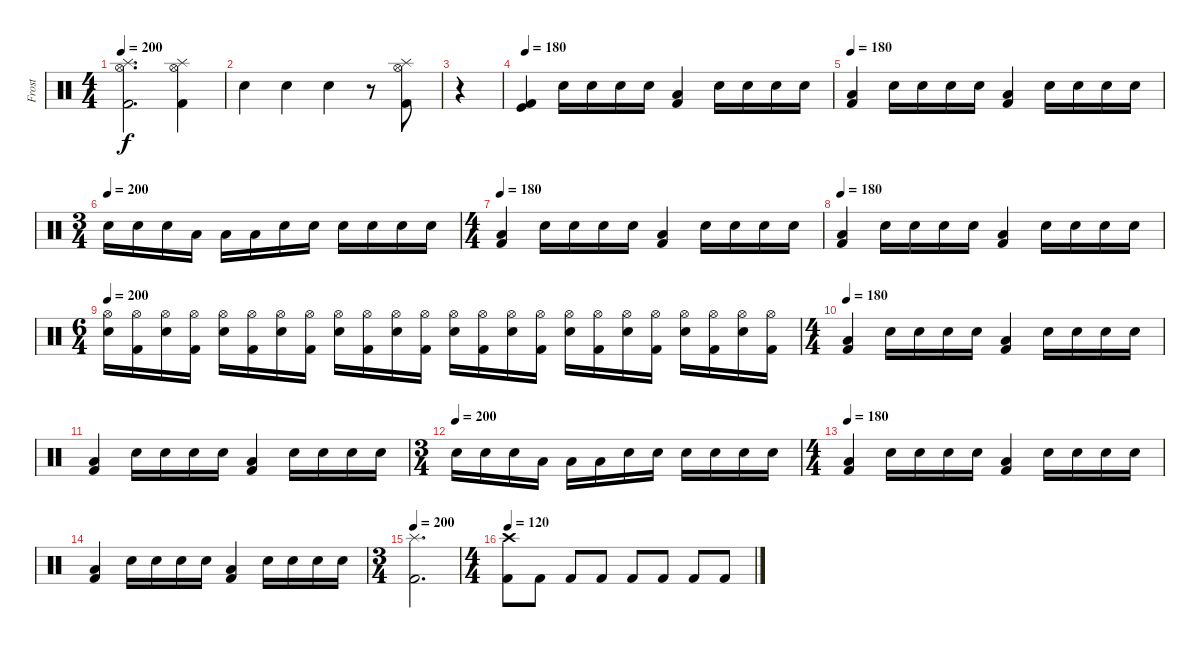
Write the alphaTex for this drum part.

\track ("Frost" "Frost") {instrument percussion}
\staff {score}
\articulation defaults
\ts (4 4)
\tempo 200
\clef neutral
\ks c
("Splash (hit)" "Hi-Hat (open)" "Kick (hit) 2").2{d dy f} ("Splash (hit)" "Hi-Hat (open)" "Kick (hit) 2").4 |
"Snare (hit)".4 "Snare (hit)".4 "Snare (hit)".4 r.8 ("Splash (hit)" "Hi-Hat (open)" "Kick (hit) 2").8 |
r.4 |
\tempo 180
("Kick (hit)" "Kick (hit) 2").4 "Snare (hit) 2".16 "Snare (hit) 2".16 "Snare (hit) 2".16 "Snare (hit) 2".16 ("Low Tom (hit)" "Kick (hit) 2").4 "Snare (hit) 2".16 "Snare (hit) 2".16 "Snare (hit) 2".16 "Snare (hit) 2".16 |
\tempo 180
("Low Tom (hit)" "Kick (hit) 2").4 "Snare (hit) 2".16 "Snare (hit) 2".16 "Snare (hit) 2".16 "Snare (hit) 2".16 ("Low Tom (hit)" "Kick (hit) 2").4 "Snare (hit) 2".16 "Snare (hit) 2".16 "Snare (hit) 2".16 "Snare (hit) 2".16 |
\ts (3 4)
\tempo (200)
"Snare (hit) 2".16 "Snare (hit) 2".16 "Snare (hit) 2".16 "Low Tom (hit)".16 "Low Tom (hit)".16 "Low Tom (hit)".16 "Snare (hit) 2".16 "Snare (hit) 2".16 "Snare (hit) 2".16 "Snare (hit) 2".16 "Snare (hit) 2".16 "Snare (hit) 2".16 |
\ts (4 4)
\tempo 180
("Low Tom (hit)" "Kick (hit) 2").4 "Snare (hit) 2".16 "Snare (hit) 2".16 "Snare (hit) 2".16 "Snare (hit) 2".16 ("Low Tom (hit)" "Kick (hit) 2").4 "Snare (hit) 2".16 "Snare (hit) 2".16 "Snare (hit) 2".16 "Snare (hit) 2".16 |
\tempo 180
("Low Tom (hit)" "Kick (hit) 2").4 "Snare (hit) 2".16 "Snare (hit) 2".16 "Snare (hit) 2".16 "Snare (hit) 2".16 ("Low Tom (hit)" "Kick (hit) 2").4 "Snare (hit) 2".16 "Snare (hit) 2".16 "Snare (hit) 2".16 "Snare (hit) 2".16 |
\ts (6 4)
\tempo 200
("Hi-Hat (open)" "Snare (hit) 2").16 ("Hi-Hat (open)" "Kick (hit) 2").16 ("Hi-Hat (open)" "Snare (hit) 2").16 ("Hi-Hat (open)" "Kick (hit) 2").16 ("Hi-Hat (open)" "Snare (hit) 2").16 ("Hi-Hat (open)" "Kick (hit) 2").16 ("Hi-Hat (open)" "Snare (hit) 2").16 ("Hi-Hat (open)" "Kick (hit) 2").16 ("Hi-Hat (open)" "Snare (hit) 2").16 ("Hi-Hat (open)" "Kick (hit) 2").16 ("Hi-Hat (open)" "Snare (hit) 2").16 ("Hi-Hat (open)" "Kick (hit) 2").16 ("Hi-Hat (open)" "Snare (hit) 2").16 ("Hi-Hat (open)" "Kick (hit) 2").16 ("Hi-Hat (open)" "Snare (hit) 2").16 ("Hi-Hat (open)" "Kick (hit) 2").16 ("Hi-Hat (open)" "Snare (hit) 2").16 ("Hi-Hat (open)" "Kick (hit) 2").16 ("Hi-Hat (open)" "Snare (hit) 2").16 ("Hi-Hat (open)" "Kick (hit) 2").16 ("Hi-Hat (open)" "Snare (hit) 2").16 ("Hi-Hat (open)" "Kick (hit) 2").16 ("Hi-Hat (open)" "Snare (hit) 2").16 ("Hi-Hat (open)" "Kick (hit) 2").16 |
\ts (4 4)
\tempo 180
("Low Tom (hit)" "Kick (hit) 2").4 "Snare (hit) 2".16 "Snare (hit) 2".16 "Snare (hit) 2".16 "Snare (hit) 2".16 ("Low Tom (hit)" "Kick (hit) 2").4 "Snare (hit) 2".16 "Snare (hit) 2".16 "Snare (hit) 2".16 "Snare (hit) 2".16 |
("Low Tom (hit)" "Kick (hit) 2").4 "Snare (hit) 2".16 "Snare (hit) 2".16 "Snare (hit) 2".16 "Snare (hit) 2".16 ("Low Tom (hit)" "Kick (hit) 2").4 "Snare (hit) 2".16 "Snare (hit) 2".16 "Snare (hit) 2".16 "Snare (hit) 2".16 |
\ts (3 4)
\tempo (200)
"Snare (hit) 2".16 "Snare (hit) 2".16 "Snare (hit) 2".16 "Low Tom (hit)".16 "Low Tom (hit)".16 "Low Tom (hit)".16 "Snare (hit) 2".16 "Snare (hit) 2".16 "Snare (hit) 2".16 "Snare (hit) 2".16 "Snare (hit) 2".16 "Snare (hit) 2".16 |
\ts (4 4)
\tempo 180
("Low Tom (hit)" "Kick (hit) 2").4 "Snare (hit) 2".16 "Snare (hit) 2".16 "Snare (hit) 2".16 "Snare (hit) 2".16 ("Low Tom (hit)" "Kick (hit) 2").4 "Snare (hit) 2".16 "Snare (hit) 2".16 "Snare (hit) 2".16 "Snare (hit) 2".16 |
("Low Tom (hit)" "Kick (hit) 2").4 "Snare (hit) 2".16 "Snare (hit) 2".16 "Snare (hit) 2".16 "Snare (hit) 2".16 ("Low Tom (hit)" "Kick (hit) 2").4 "Snare (hit) 2".16 "Snare (hit) 2".16 "Snare (hit) 2".16 "Snare (hit) 2".16 |
\ts (3 4)
\tempo 200
("Splash (hit)" "Kick (hit) 2").2{d} |
\ts (4 4)
\tempo 120
("Crash high (hit)" "Kick (hit) 2").8 "Kick (hit) 2".8 "Kick (hit) 2".8 "Kick (hit) 2".8 "Kick (hit) 2".8 "Kick (hit) 2".8 "Kick (hit) 2".8 "Kick (hit) 2".8
